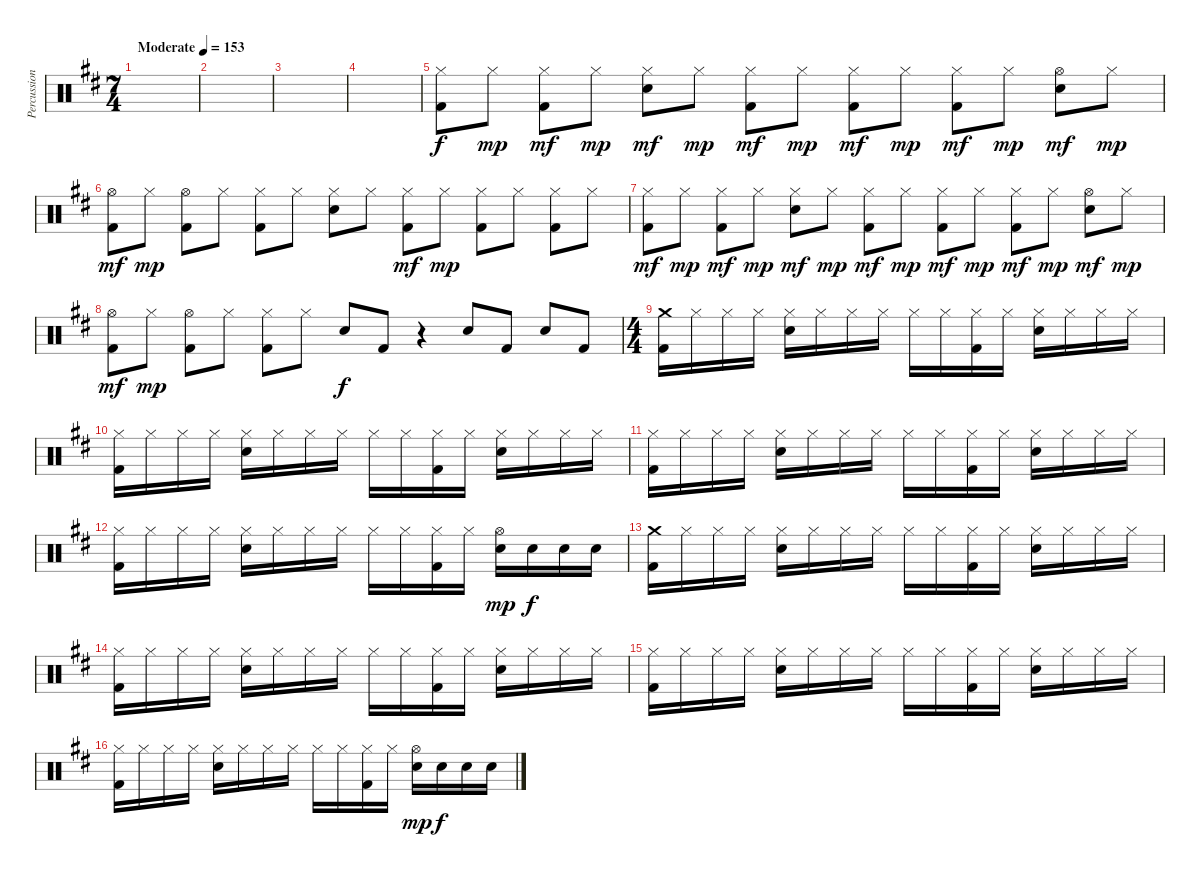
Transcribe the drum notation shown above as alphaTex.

\track ("Percussion" "Percussion") {instrument percussion}
\staff {score}
\articulation defaults
\ts (7 4)
\tempo (153 "Moderate")
\clef neutral
\ks bminor
|
|
|
|
("Hi-Hat (closed)" "Kick (hit) 2").8 "Hi-Hat (closed)".8{dy mp} ("Hi-Hat (closed)" "Kick (hit) 2").8{dy mf} "Hi-Hat (closed)".8{dy mp} ("Hi-Hat (closed)" "Electric Snare (hit)").8{dy mf} "Hi-Hat (closed)".8{dy mp} ("Hi-Hat (closed)" "Kick (hit) 2").8{dy mf} "Hi-Hat (closed)".8{dy mp} ("Hi-Hat (closed)" "Kick (hit) 2").8{dy mf} "Hi-Hat (closed)".8{dy mp} ("Hi-Hat (closed)" "Kick (hit) 2").8{dy mf} "Hi-Hat (closed)".8{dy mp} ("Hi-Hat (open)" "Electric Snare (hit)").8{dy mf} "Hi-Hat (closed)".8{dy mp} |
("Hi-Hat (open)" "Kick (hit) 2").8{dy mf} "Hi-Hat (closed)".8{dy mp} ("Hi-Hat (open)" "Kick (hit) 2").8 "Hi-Hat (closed)".8 ("Hi-Hat (closed)" "Kick (hit) 2").8 "Hi-Hat (closed)".8 ("Hi-Hat (closed)" "Electric Snare (hit)").8 "Hi-Hat (closed)".8 ("Hi-Hat (closed)" "Kick (hit) 2").8{dy mf} "Hi-Hat (closed)".8{dy mp} ("Hi-Hat (closed)" "Kick (hit) 2").8 "Hi-Hat (closed)".8 ("Hi-Hat (closed)" "Kick (hit) 2").8 "Hi-Hat (closed)".8 |
("Hi-Hat (closed)" "Kick (hit) 2").8{dy mf} "Hi-Hat (closed)".8{dy mp} ("Hi-Hat (closed)" "Kick (hit) 2").8{dy mf} "Hi-Hat (closed)".8{dy mp} ("Hi-Hat (closed)" "Electric Snare (hit)").8{dy mf} "Hi-Hat (closed)".8{dy mp} ("Hi-Hat (closed)" "Kick (hit) 2").8{dy mf} "Hi-Hat (closed)".8{dy mp} ("Hi-Hat (closed)" "Kick (hit) 2").8{dy mf} "Hi-Hat (closed)".8{dy mp} ("Hi-Hat (closed)" "Kick (hit) 2").8{dy mf} "Hi-Hat (closed)".8{dy mp} ("Hi-Hat (open)" "Electric Snare (hit)").8{dy mf} "Hi-Hat (closed)".8{dy mp} |
("Hi-Hat (open)" "Kick (hit) 2").8{dy mf} "Hi-Hat (closed)".8{dy mp} ("Hi-Hat (open)" "Kick (hit) 2").8 "Hi-Hat (closed)".8 ("Hi-Hat (closed)" "Kick (hit) 2").8 "Hi-Hat (closed)".8 "Electric Snare (hit)".8{dy f} "Kick (hit) 2".8 r.4 "Electric Snare (hit)".8 "Kick (hit) 2".8 "Electric Snare (hit)".8 "Kick (hit) 2".8 |
\ts (4 4)
("Crash medium (hit)" "Kick (hit) 2").16 "Hi-Hat (closed)".16 "Hi-Hat (closed)".16 "Hi-Hat (closed)".16 ("Hi-Hat (closed)" "Electric Snare (hit)").16 "Hi-Hat (closed)".16 "Hi-Hat (closed)".16 "Hi-Hat (closed)".16 "Hi-Hat (closed)".16 "Hi-Hat (closed)".16 ("Hi-Hat (closed)" "Kick (hit) 2").16 "Hi-Hat (closed)".16 ("Hi-Hat (closed)" "Electric Snare (hit)").16 "Hi-Hat (closed)".16 "Hi-Hat (closed)".16 "Hi-Hat (closed)".16 |
("Hi-Hat (closed)" "Kick (hit) 2").16 "Hi-Hat (closed)".16 "Hi-Hat (closed)".16 "Hi-Hat (closed)".16 ("Hi-Hat (closed)" "Electric Snare (hit)").16 "Hi-Hat (closed)".16 "Hi-Hat (closed)".16 "Hi-Hat (closed)".16 "Hi-Hat (closed)".16 "Hi-Hat (closed)".16 ("Hi-Hat (closed)" "Kick (hit) 2").16 "Hi-Hat (closed)".16 ("Hi-Hat (closed)" "Electric Snare (hit)").16 "Hi-Hat (closed)".16 "Hi-Hat (closed)".16 "Hi-Hat (closed)".16 |
("Hi-Hat (closed)" "Kick (hit) 2").16 "Hi-Hat (closed)".16 "Hi-Hat (closed)".16 "Hi-Hat (closed)".16 ("Hi-Hat (closed)" "Electric Snare (hit)").16 "Hi-Hat (closed)".16 "Hi-Hat (closed)".16 "Hi-Hat (closed)".16 "Hi-Hat (closed)".16 "Hi-Hat (closed)".16 ("Hi-Hat (closed)" "Kick (hit) 2").16 "Hi-Hat (closed)".16 ("Hi-Hat (closed)" "Electric Snare (hit)").16 "Hi-Hat (closed)".16 "Hi-Hat (closed)".16 "Hi-Hat (closed)".16 |
("Hi-Hat (closed)" "Kick (hit) 2").16 "Hi-Hat (closed)".16 "Hi-Hat (closed)".16 "Hi-Hat (closed)".16 ("Hi-Hat (closed)" "Electric Snare (hit)").16 "Hi-Hat (closed)".16 "Hi-Hat (closed)".16 "Hi-Hat (closed)".16 "Hi-Hat (closed)".16 "Hi-Hat (closed)".16 ("Hi-Hat (closed)" "Kick (hit) 2").16 "Hi-Hat (closed)".16 ("Electric Snare (hit)" "Hi-Hat (open)").16{dy mp} "Electric Snare (hit)".16{dy f} "Electric Snare (hit)".16 "Electric Snare (hit)".16 |
("Crash medium (hit)" "Kick (hit) 2").16 "Hi-Hat (closed)".16 "Hi-Hat (closed)".16 "Hi-Hat (closed)".16 ("Hi-Hat (closed)" "Electric Snare (hit)").16 "Hi-Hat (closed)".16 "Hi-Hat (closed)".16 "Hi-Hat (closed)".16 "Hi-Hat (closed)".16 "Hi-Hat (closed)".16 ("Hi-Hat (closed)" "Kick (hit) 2").16 "Hi-Hat (closed)".16 ("Hi-Hat (closed)" "Electric Snare (hit)").16 "Hi-Hat (closed)".16 "Hi-Hat (closed)".16 "Hi-Hat (closed)".16 |
("Hi-Hat (closed)" "Kick (hit) 2").16 "Hi-Hat (closed)".16 "Hi-Hat (closed)".16 "Hi-Hat (closed)".16 ("Hi-Hat (closed)" "Electric Snare (hit)").16 "Hi-Hat (closed)".16 "Hi-Hat (closed)".16 "Hi-Hat (closed)".16 "Hi-Hat (closed)".16 "Hi-Hat (closed)".16 ("Hi-Hat (closed)" "Kick (hit) 2").16 "Hi-Hat (closed)".16 ("Hi-Hat (closed)" "Electric Snare (hit)").16 "Hi-Hat (closed)".16 "Hi-Hat (closed)".16 "Hi-Hat (closed)".16 |
("Hi-Hat (closed)" "Kick (hit) 2").16 "Hi-Hat (closed)".16 "Hi-Hat (closed)".16 "Hi-Hat (closed)".16 ("Hi-Hat (closed)" "Electric Snare (hit)").16 "Hi-Hat (closed)".16 "Hi-Hat (closed)".16 "Hi-Hat (closed)".16 "Hi-Hat (closed)".16 "Hi-Hat (closed)".16 ("Hi-Hat (closed)" "Kick (hit) 2").16 "Hi-Hat (closed)".16 ("Hi-Hat (closed)" "Electric Snare (hit)").16 "Hi-Hat (closed)".16 "Hi-Hat (closed)".16 "Hi-Hat (closed)".16 |
("Hi-Hat (closed)" "Kick (hit) 2").16 "Hi-Hat (closed)".16 "Hi-Hat (closed)".16 "Hi-Hat (closed)".16 ("Hi-Hat (closed)" "Electric Snare (hit)").16 "Hi-Hat (closed)".16 "Hi-Hat (closed)".16 "Hi-Hat (closed)".16 "Hi-Hat (closed)".16 "Hi-Hat (closed)".16 ("Hi-Hat (closed)" "Kick (hit) 2").16 "Hi-Hat (closed)".16 ("Electric Snare (hit)" "Hi-Hat (open)").16{dy mp} "Electric Snare (hit)".16{dy f} "Electric Snare (hit)".16 "Electric Snare (hit)".16
